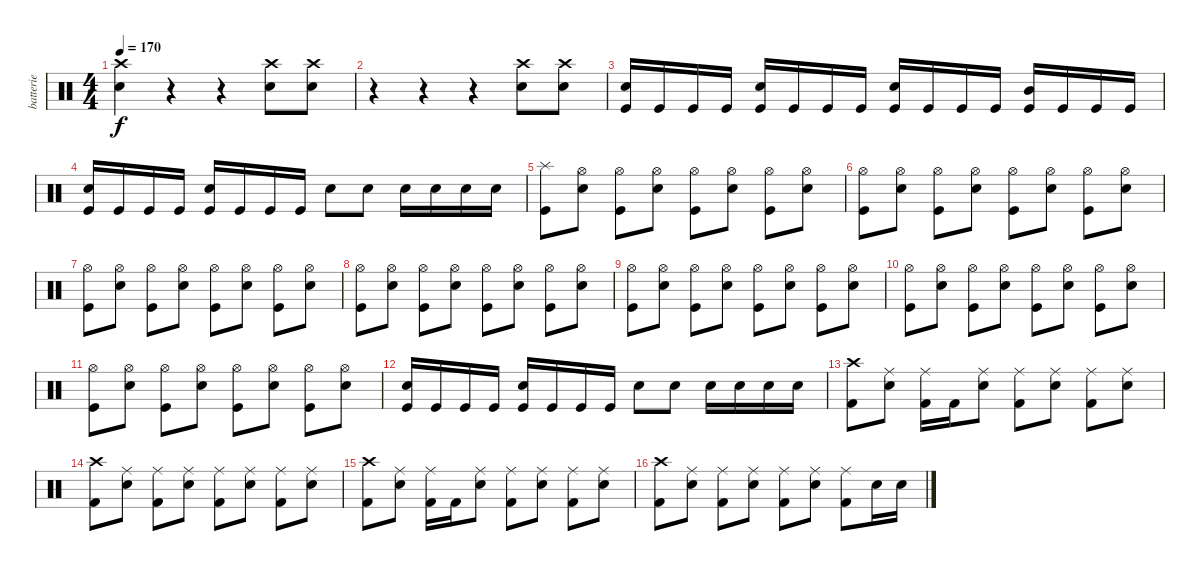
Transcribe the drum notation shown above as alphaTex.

\track ("batterie" "batterie") {instrument percussion}
\staff {score}
\articulation defaults
\ts (4 4)
\tempo 170
\clef neutral
\ks c
("Crash high (hit)" "Snare (hit) 2").4{dy f} r.4 r.4 ("Crash high (hit)" "Snare (hit) 2").8 ("Crash high (hit)" "Snare (hit) 2").8 |
r.4 r.4 r.4 ("Crash high (hit)" "Snare (hit) 2").8 ("Crash high (hit)" "Snare (hit) 2").8 |
("Kick (hit)" "Electric Snare (hit)").16 "Kick (hit)".16 "Kick (hit)".16 "Kick (hit)".16 ("Kick (hit)" "Electric Snare (hit)").16 "Kick (hit)".16 "Kick (hit)".16 "Kick (hit)".16 ("Kick (hit)" "Electric Snare (hit)").16 "Kick (hit)".16 "Kick (hit)".16 "Kick (hit)".16 ("Kick (hit)" "Mid Tom (hit)").16 "Kick (hit)".16 "Kick (hit)".16 "Kick (hit)".16 |
("Kick (hit)" "Electric Snare (hit)").16 "Kick (hit)".16 "Kick (hit)".16 "Kick (hit)".16 ("Kick (hit)" "Electric Snare (hit)").16 "Kick (hit)".16 "Kick (hit)".16 "Kick (hit)".16 "Electric Snare (hit)".8 "Electric Snare (hit)".8 "Electric Snare (hit)".16 "Electric Snare (hit)".16 "Electric Snare (hit)".16 "Electric Snare (hit)".16 |
("Kick (hit)" "Splash (hit)").8 ("Electric Snare (hit)" "Hi-Hat (open)").8 ("Kick (hit)" "Hi-Hat (open)").8 ("Electric Snare (hit)" "Hi-Hat (open)").8 ("Kick (hit)" "Hi-Hat (open)").8 ("Electric Snare (hit)" "Hi-Hat (open)").8 ("Kick (hit)" "Hi-Hat (open)").8 ("Electric Snare (hit)" "Hi-Hat (open)").8 |
("Kick (hit)" "Hi-Hat (open)").8 ("Electric Snare (hit)" "Hi-Hat (open)").8 ("Kick (hit)" "Hi-Hat (open)").8 ("Electric Snare (hit)" "Hi-Hat (open)").8 ("Kick (hit)" "Hi-Hat (open)").8 ("Electric Snare (hit)" "Hi-Hat (open)").8 ("Kick (hit)" "Hi-Hat (open)").8 ("Electric Snare (hit)" "Hi-Hat (open)").8 |
("Kick (hit)" "Hi-Hat (open)").8 ("Electric Snare (hit)" "Hi-Hat (open)").8 ("Kick (hit)" "Hi-Hat (open)").8 ("Electric Snare (hit)" "Hi-Hat (open)").8 ("Kick (hit)" "Hi-Hat (open)").8 ("Electric Snare (hit)" "Hi-Hat (open)").8 ("Kick (hit)" "Hi-Hat (open)").8 ("Electric Snare (hit)" "Hi-Hat (open)").8 |
("Kick (hit)" "Hi-Hat (open)").8 ("Electric Snare (hit)" "Hi-Hat (open)").8 ("Kick (hit)" "Hi-Hat (open)").8 ("Electric Snare (hit)" "Hi-Hat (open)").8 ("Kick (hit)" "Hi-Hat (open)").8 ("Electric Snare (hit)" "Hi-Hat (open)").8 ("Kick (hit)" "Hi-Hat (open)").8 ("Electric Snare (hit)" "Hi-Hat (open)").8 |
("Kick (hit)" "Hi-Hat (open)").8 ("Electric Snare (hit)" "Hi-Hat (open)").8 ("Kick (hit)" "Hi-Hat (open)").8 ("Electric Snare (hit)" "Hi-Hat (open)").8 ("Kick (hit)" "Hi-Hat (open)").8 ("Electric Snare (hit)" "Hi-Hat (open)").8 ("Kick (hit)" "Hi-Hat (open)").8 ("Electric Snare (hit)" "Hi-Hat (open)").8 |
("Kick (hit)" "Hi-Hat (open)").8 ("Electric Snare (hit)" "Hi-Hat (open)").8 ("Kick (hit)" "Hi-Hat (open)").8 ("Electric Snare (hit)" "Hi-Hat (open)").8 ("Kick (hit)" "Hi-Hat (open)").8 ("Electric Snare (hit)" "Hi-Hat (open)").8 ("Kick (hit)" "Hi-Hat (open)").8 ("Electric Snare (hit)" "Hi-Hat (open)").8 |
("Kick (hit)" "Hi-Hat (open)").8 ("Electric Snare (hit)" "Hi-Hat (open)").8 ("Kick (hit)" "Hi-Hat (open)").8 ("Electric Snare (hit)" "Hi-Hat (open)").8 ("Kick (hit)" "Hi-Hat (open)").8 ("Electric Snare (hit)" "Hi-Hat (open)").8 ("Kick (hit)" "Hi-Hat (open)").8 ("Electric Snare (hit)" "Hi-Hat (open)").8 |
("Kick (hit)" "Electric Snare (hit)").16 "Kick (hit)".16 "Kick (hit)".16 "Kick (hit)".16 ("Kick (hit)" "Electric Snare (hit)").16 "Kick (hit)".16 "Kick (hit)".16 "Kick (hit)".16 "Electric Snare (hit)".8 "Electric Snare (hit)".8 "Electric Snare (hit)".16 "Electric Snare (hit)".16 "Electric Snare (hit)".16 "Electric Snare (hit)".16 |
("Crash high (hit)" "Kick (hit) 2").8 ("Ride (middle)" "Snare (hit) 2").8 ("Ride (middle)" "Kick (hit) 2").16 "Kick (hit) 2".16 ("Ride (middle)" "Snare (hit) 2").8 ("Ride (middle)" "Kick (hit) 2").8 ("Ride (middle)" "Snare (hit) 2").8 ("Ride (middle)" "Kick (hit) 2").8 ("Ride (middle)" "Snare (hit) 2").8 |
("Crash high (hit)" "Kick (hit) 2").8 ("Ride (middle)" "Snare (hit) 2").8 ("Ride (middle)" "Kick (hit) 2").8 ("Ride (middle)" "Snare (hit) 2").8 ("Ride (middle)" "Kick (hit) 2").8 ("Ride (middle)" "Snare (hit) 2").8 ("Ride (middle)" "Kick (hit) 2").8 ("Ride (middle)" "Snare (hit) 2").8 |
("Crash high (hit)" "Kick (hit) 2").8 ("Ride (middle)" "Snare (hit) 2").8 ("Ride (middle)" "Kick (hit) 2").16 "Kick (hit) 2".16 ("Ride (middle)" "Snare (hit) 2").8 ("Ride (middle)" "Kick (hit) 2").8 ("Ride (middle)" "Snare (hit) 2").8 ("Ride (middle)" "Kick (hit) 2").8 ("Ride (middle)" "Snare (hit) 2").8 |
("Crash high (hit)" "Kick (hit) 2").8 ("Ride (middle)" "Snare (hit) 2").8 ("Ride (middle)" "Kick (hit) 2").8 ("Ride (middle)" "Snare (hit) 2").8 ("Ride (middle)" "Kick (hit) 2").8 ("Ride (middle)" "Snare (hit) 2").8 ("Ride (middle)" "Kick (hit) 2").8 "Snare (hit) 2".16 "Snare (hit) 2".16
